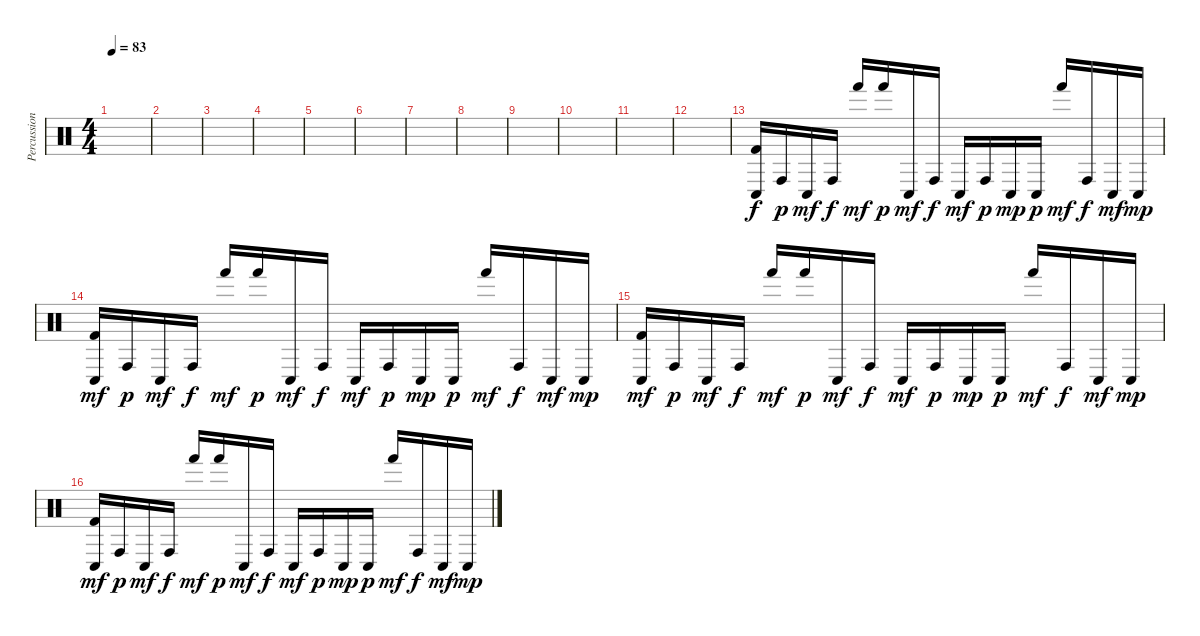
\track ("Percussions" "Percussion") {instrument percussion}
\staff {score}
\articulation defaults
\ts (4 4)
\tempo 83
\clef neutral
\ks c
|
|
|
|
|
|
|
|
|
|
|
|
("Conga low (hit)" "Kick (hit) 2").16{volume 8} "Conga high (hit)".16{dy p} "Conga low (hit)".16{dy mf} "Conga high (hit)".16{dy f} "Hand (hit)".16{dy mf} "Hand (hit)".16{dy p} "Conga low (hit)".16{dy mf} "Conga high (hit)".16{dy f} "Conga low (hit)".16{dy mf} "Conga high (hit)".16{dy p} "Conga low (hit)".16{dy mp} "Conga low (hit)".16{dy p} "Hand (hit)".16{dy mf} "Conga high (hit)".16{dy f} "Conga low (hit)".16{dy mf} "Conga low (hit)".16{dy mp} |
("Conga low (hit)" "Kick (hit) 2").16{dy mf volume 8} "Conga high (hit)".16{dy p} "Conga low (hit)".16{dy mf} "Conga high (hit)".16{dy f} "Hand (hit)".16{dy mf} "Hand (hit)".16{dy p} "Conga low (hit)".16{dy mf} "Conga high (hit)".16{dy f} "Conga low (hit)".16{dy mf} "Conga high (hit)".16{dy p} "Conga low (hit)".16{dy mp} "Conga low (hit)".16{dy p} "Hand (hit)".16{dy mf} "Conga high (hit)".16{dy f} "Conga low (hit)".16{dy mf} "Conga low (hit)".16{dy mp} |
("Conga low (hit)" "Kick (hit) 2").16{dy mf volume 8} "Conga high (hit)".16{dy p} "Conga low (hit)".16{dy mf} "Conga high (hit)".16{dy f} "Hand (hit)".16{dy mf} "Hand (hit)".16{dy p} "Conga low (hit)".16{dy mf} "Conga high (hit)".16{dy f} "Conga low (hit)".16{dy mf} "Conga high (hit)".16{dy p} "Conga low (hit)".16{dy mp} "Conga low (hit)".16{dy p} "Hand (hit)".16{dy mf} "Conga high (hit)".16{dy f} "Conga low (hit)".16{dy mf} "Conga low (hit)".16{dy mp} |
("Conga low (hit)" "Kick (hit) 2").16{dy mf volume 8} "Conga high (hit)".16{dy p} "Conga low (hit)".16{dy mf} "Conga high (hit)".16{dy f} "Hand (hit)".16{dy mf} "Hand (hit)".16{dy p} "Conga low (hit)".16{dy mf} "Conga high (hit)".16{dy f} "Conga low (hit)".16{dy mf} "Conga high (hit)".16{dy p} "Conga low (hit)".16{dy mp} "Conga low (hit)".16{dy p} "Hand (hit)".16{dy mf} "Conga high (hit)".16{dy f} "Conga low (hit)".16{dy mf} "Conga low (hit)".16{dy mp}
